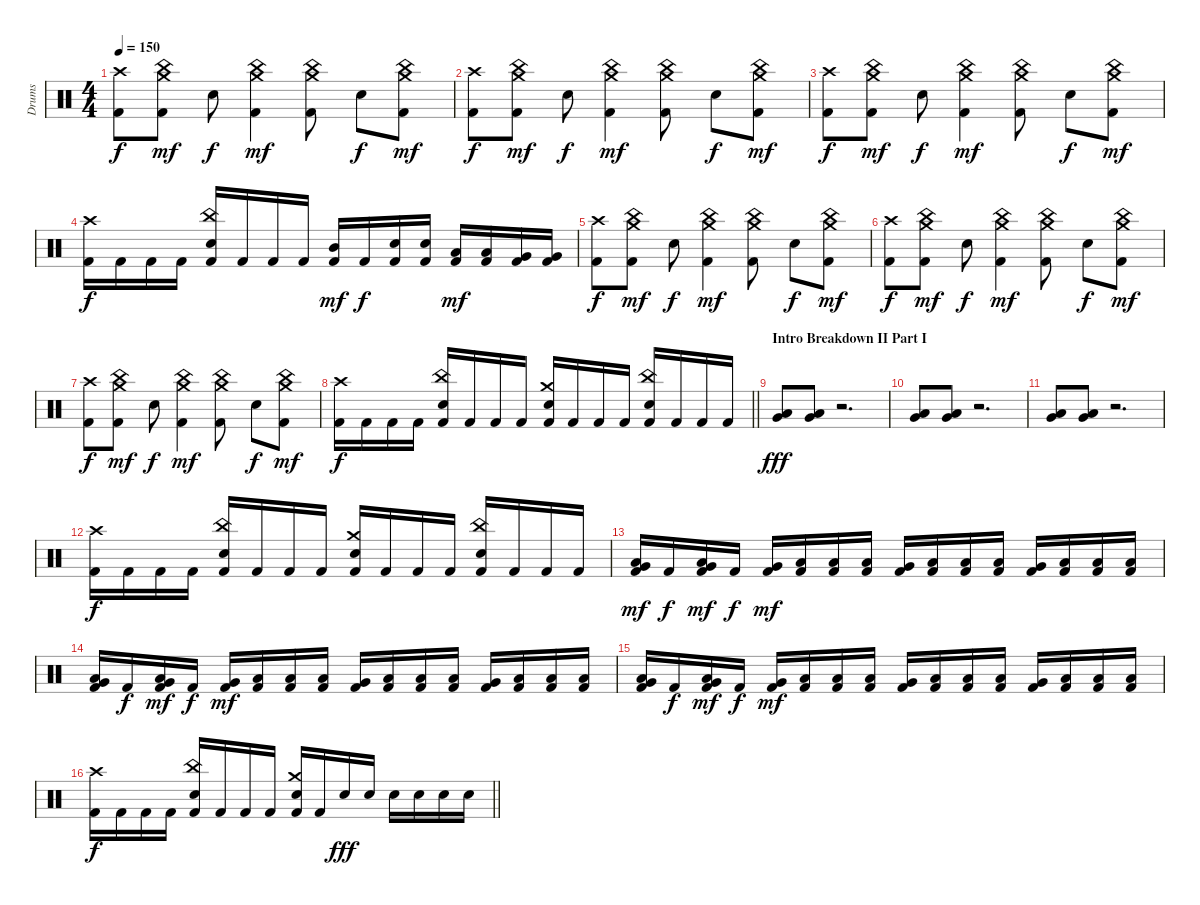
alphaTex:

\track ("Drums" "Drums") {instrument percussion}
\staff {score}
\articulation defaults
\ts (4 4)
\tempo 150
\clef neutral
\ks c
("Crash high (hit)" "Kick (hit) 2").8{dy f} ("China (hit)" "Crash medium (hit)" "Kick (hit) 2").8{dy mf} "Electric Snare (hit)".8{dy f} ("China (hit)" "Crash medium (hit)" "Kick (hit) 2").4{dy mf} ("China (hit)" "Crash medium (hit)" "Kick (hit) 2").8 "Electric Snare (hit)".8{dy f} ("China (hit)" "Crash medium (hit)" "Kick (hit) 2").8{dy mf} |
("Crash high (hit)" "Kick (hit) 2").8{dy f} ("China (hit)" "Crash medium (hit)" "Kick (hit) 2").8{dy mf} "Electric Snare (hit)".8{dy f} ("China (hit)" "Crash medium (hit)" "Kick (hit) 2").4{dy mf} ("China (hit)" "Crash medium (hit)" "Kick (hit) 2").8 "Electric Snare (hit)".8{dy f} ("China (hit)" "Crash medium (hit)" "Kick (hit) 2").8{dy mf} |
("Crash high (hit)" "Kick (hit) 2").8{dy f} ("China (hit)" "Crash medium (hit)" "Kick (hit) 2").8{dy mf} "Electric Snare (hit)".8{dy f} ("China (hit)" "Crash medium (hit)" "Kick (hit) 2").4{dy mf} ("China (hit)" "Crash medium (hit)" "Kick (hit) 2").8 "Electric Snare (hit)".8{dy f} ("China (hit)" "Crash medium (hit)" "Kick (hit) 2").8{dy mf} |
("Crash high (hit)" "Kick (hit) 2").16{dy f} "Kick (hit) 2".16 "Kick (hit) 2".16 "Kick (hit) 2".16 ("China (hit)" "Electric Snare (hit)" "Kick (hit) 2").16 "Kick (hit) 2".16 "Kick (hit) 2".16 "Kick (hit) 2".16 ("Mid Tom (hit)" "Kick (hit) 2").16{dy mf} "Kick (hit) 2".16{dy f} ("Electric Snare (hit)" "Kick (hit) 2").16 ("Electric Snare (hit)" "Kick (hit) 2").16 ("Low Tom (hit)" "Kick (hit) 2").16{dy mf} ("Low Tom (hit)" "Kick (hit) 2").16 ("Very Low Tom (hit)" "Kick (hit) 2").16 ("Very Low Tom (hit)" "Kick (hit) 2").16 |
("Crash high (hit)" "Kick (hit) 2").8{dy f} ("China (hit)" "Crash medium (hit)" "Kick (hit) 2").8{dy mf} "Electric Snare (hit)".8{dy f} ("China (hit)" "Crash medium (hit)" "Kick (hit) 2").4{dy mf} ("China (hit)" "Crash medium (hit)" "Kick (hit) 2").8 "Electric Snare (hit)".8{dy f} ("China (hit)" "Crash medium (hit)" "Kick (hit) 2").8{dy mf} |
("Crash high (hit)" "Kick (hit) 2").8{dy f} ("China (hit)" "Crash medium (hit)" "Kick (hit) 2").8{dy mf} "Electric Snare (hit)".8{dy f} ("China (hit)" "Crash medium (hit)" "Kick (hit) 2").4{dy mf} ("China (hit)" "Crash medium (hit)" "Kick (hit) 2").8 "Electric Snare (hit)".8{dy f} ("China (hit)" "Crash medium (hit)" "Kick (hit) 2").8{dy mf} |
("Crash high (hit)" "Kick (hit) 2").8{dy f} ("China (hit)" "Crash medium (hit)" "Kick (hit) 2").8{dy mf} "Electric Snare (hit)".8{dy f} ("China (hit)" "Crash medium (hit)" "Kick (hit) 2").4{dy mf} ("China (hit)" "Crash medium (hit)" "Kick (hit) 2").8 "Electric Snare (hit)".8{dy f} ("China (hit)" "Crash medium (hit)" "Kick (hit) 2").8{dy mf} |
\barLineRight lightlight
("Crash high (hit)" "Kick (hit) 2").16{dy f} "Kick (hit) 2".16 "Kick (hit) 2".16 "Kick (hit) 2".16 ("China (hit)" "Electric Snare (hit)" "Kick (hit) 2").16 "Kick (hit) 2".16 "Kick (hit) 2".16 "Kick (hit) 2".16 ("Crash medium (hit)" "Electric Snare (hit)" "Kick (hit) 2").16 "Kick (hit) 2".16 "Kick (hit) 2".16 "Kick (hit) 2".16 ("China (hit)" "Electric Snare (hit)" "Kick (hit) 2").16 "Kick (hit) 2".16 "Kick (hit) 2".16 "Kick (hit) 2".16 |
\section ("" "Intro Breakdown II Part I")
("Low Tom (hit)" "Very Low Tom (hit)").8{dy fff} ("Low Tom (hit)" "Very Low Tom (hit)").8 r.2{d} |
("Low Tom (hit)" "Very Low Tom (hit)").8 ("Low Tom (hit)" "Very Low Tom (hit)").8 r.2{d} |
("Low Tom (hit)" "Very Low Tom (hit)").8 ("Low Tom (hit)" "Very Low Tom (hit)").8 r.2{d} |
("Crash high (hit)" "Kick (hit) 2").16{dy f} "Kick (hit) 2".16 "Kick (hit) 2".16 "Kick (hit) 2".16 ("China (hit)" "Electric Snare (hit)" "Kick (hit) 2").16 "Kick (hit) 2".16 "Kick (hit) 2".16 "Kick (hit) 2".16 ("Crash medium (hit)" "Electric Snare (hit)" "Kick (hit) 2").16 "Kick (hit) 2".16 "Kick (hit) 2".16 "Kick (hit) 2".16 ("China (hit)" "Electric Snare (hit)" "Kick (hit) 2").16 "Kick (hit) 2".16 "Kick (hit) 2".16 "Kick (hit) 2".16 |
("Low Tom (hit)" "Very Low Tom (hit)" "Kick (hit) 2").16{dy mf} "Kick (hit) 2".16{dy f} ("Low Tom (hit)" "Very Low Tom (hit)" "Kick (hit) 2").16{dy mf} "Kick (hit) 2".16{dy f} ("Very Low Tom (hit)" "Kick (hit) 2").16{dy mf} ("Low Floor Tom (hit)" "Kick (hit) 2").16 ("Low Floor Tom (hit)" "Kick (hit) 2").16 ("Low Floor Tom (hit)" "Kick (hit) 2").16 ("Very Low Tom (hit)" "Kick (hit) 2").16 ("Low Floor Tom (hit)" "Kick (hit) 2").16 ("Low Floor Tom (hit)" "Kick (hit) 2").16 ("Low Floor Tom (hit)" "Kick (hit) 2").16 ("Very Low Tom (hit)" "Kick (hit) 2").16 ("Low Floor Tom (hit)" "Kick (hit) 2").16 ("Low Floor Tom (hit)" "Kick (hit) 2").16 ("Low Floor Tom (hit)" "Kick (hit) 2").16 |
("Low Tom (hit)" "Very Low Tom (hit)" "Kick (hit) 2").16 "Kick (hit) 2".16{dy f} ("Low Tom (hit)" "Very Low Tom (hit)" "Kick (hit) 2").16{dy mf} "Kick (hit) 2".16{dy f} ("Very Low Tom (hit)" "Kick (hit) 2").16{dy mf} ("Low Floor Tom (hit)" "Kick (hit) 2").16 ("Low Floor Tom (hit)" "Kick (hit) 2").16 ("Low Floor Tom (hit)" "Kick (hit) 2").16 ("Very Low Tom (hit)" "Kick (hit) 2").16 ("Low Floor Tom (hit)" "Kick (hit) 2").16 ("Low Floor Tom (hit)" "Kick (hit) 2").16 ("Low Floor Tom (hit)" "Kick (hit) 2").16 ("Very Low Tom (hit)" "Kick (hit) 2").16 ("Low Floor Tom (hit)" "Kick (hit) 2").16 ("Low Floor Tom (hit)" "Kick (hit) 2").16 ("Low Floor Tom (hit)" "Kick (hit) 2").16 |
("Low Tom (hit)" "Very Low Tom (hit)" "Kick (hit) 2").16 "Kick (hit) 2".16{dy f} ("Low Tom (hit)" "Very Low Tom (hit)" "Kick (hit) 2").16{dy mf} "Kick (hit) 2".16{dy f} ("Very Low Tom (hit)" "Kick (hit) 2").16{dy mf} ("Low Floor Tom (hit)" "Kick (hit) 2").16 ("Low Floor Tom (hit)" "Kick (hit) 2").16 ("Low Floor Tom (hit)" "Kick (hit) 2").16 ("Very Low Tom (hit)" "Kick (hit) 2").16 ("Low Floor Tom (hit)" "Kick (hit) 2").16 ("Low Floor Tom (hit)" "Kick (hit) 2").16 ("Low Floor Tom (hit)" "Kick (hit) 2").16 ("Very Low Tom (hit)" "Kick (hit) 2").16 ("Low Floor Tom (hit)" "Kick (hit) 2").16 ("Low Floor Tom (hit)" "Kick (hit) 2").16 ("Low Floor Tom (hit)" "Kick (hit) 2").16 |
\barLineRight lightlight
("Crash high (hit)" "Kick (hit) 2").16{dy f} "Kick (hit) 2".16 "Kick (hit) 2".16 "Kick (hit) 2".16 ("China (hit)" "Electric Snare (hit)" "Kick (hit) 2").16 "Kick (hit) 2".16 "Kick (hit) 2".16 "Kick (hit) 2".16 ("Crash medium (hit)" "Electric Snare (hit)" "Kick (hit) 2").16 "Kick (hit) 2".16 "Electric Snare (hit)".16{dy fff} "Electric Snare (hit)".16 "Electric Snare (hit)".16 "Electric Snare (hit)".16 "Electric Snare (hit)".16 "Electric Snare (hit)".16
